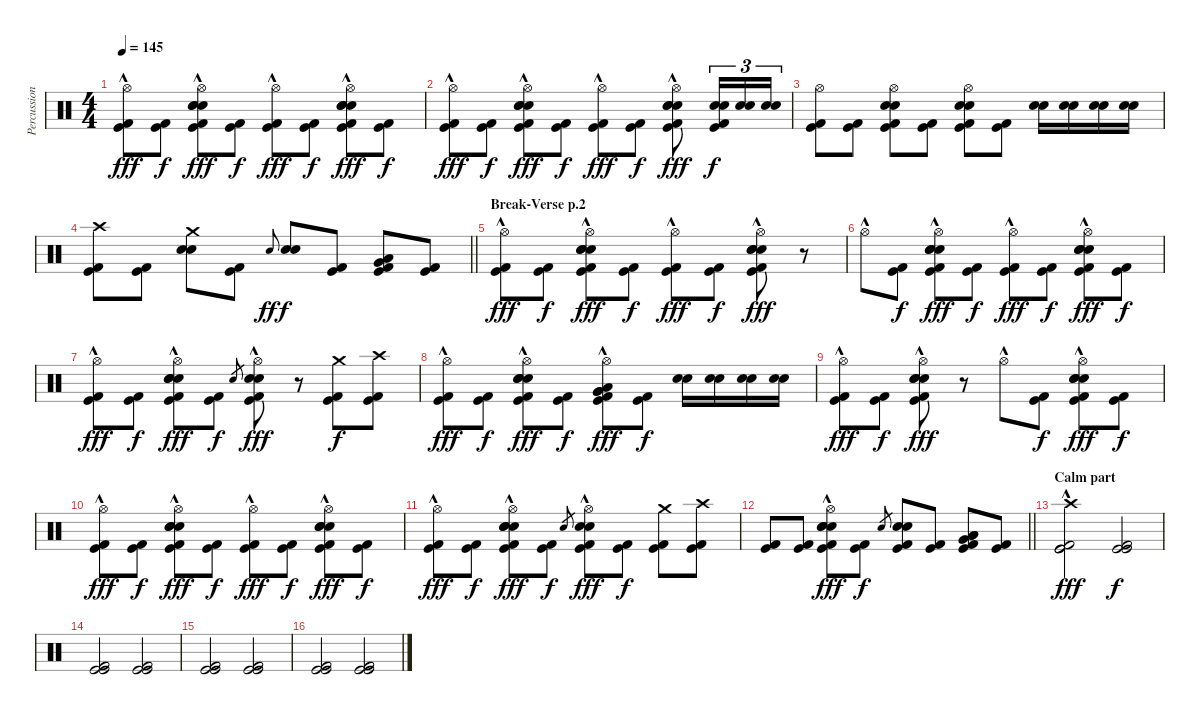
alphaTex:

\track ("Percussion" "Percussion") {instrument percussion}
\staff {score}
\articulation defaults
\ts (4 4)
\tempo 145
\clef neutral
\ks c
("Hi-Hat (open)"{hac} "Kick (hit)" "Kick (hit) 2").8{dy fff} ("Kick (hit)" "Kick (hit) 2").8{dy f} ("Hi-Hat (open)"{hac} "Electric Snare (hit)" "Snare (hit) 2" "Electric Snare (hit)" "Kick (hit)" "Kick (hit) 2").8{dy fff} ("Kick (hit)" "Kick (hit) 2").8{dy f} ("Hi-Hat (open)"{hac} "Kick (hit)" "Kick (hit) 2").8{dy fff} ("Kick (hit)" "Kick (hit) 2").8{dy f} ("Hi-Hat (open)"{hac} "Electric Snare (hit)" "Electric Snare (hit)" "Snare (hit) 2" "Kick (hit)" "Kick (hit) 2").8{dy fff} ("Kick (hit)" "Kick (hit) 2").8{dy f} |
("Hi-Hat (open)"{hac} "Kick (hit)" "Kick (hit) 2").8{dy fff} ("Kick (hit)" "Kick (hit) 2").8{dy f} ("Hi-Hat (open)"{hac} "Electric Snare (hit)" "Snare (hit) 2" "Electric Snare (hit)" "Kick (hit)" "Kick (hit) 2").8{dy fff} ("Kick (hit)" "Kick (hit) 2").8{dy f} ("Hi-Hat (open)"{hac} "Kick (hit)" "Kick (hit) 2").8{dy fff} ("Kick (hit)" "Kick (hit) 2").8{dy f} ("Hi-Hat (open)"{hac} "Electric Snare (hit)" "Electric Snare (hit)" "Snare (hit) 2" "Kick (hit)" "Kick (hit) 2").8{dy fff} ("Electric Snare (hit)" "Snare (hit) 2" "Kick (hit)" "Kick (hit) 2").16{tu (3 2) dy f} ("Electric Snare (hit)" "Snare (hit) 2").16{tu (3 2)} ("Electric Snare (hit)" "Snare (hit) 2").16{tu (3 2)} |
("Hi-Hat (open)" "Kick (hit) 2" "Kick (hit)").8 ("Kick (hit)" "Kick (hit) 2").8 ("Hi-Hat (open)" "Electric Snare (hit)" "Snare (hit) 2" "Kick (hit)" "Kick (hit) 2").8 ("Kick (hit)" "Kick (hit) 2").8 ("Hi-Hat (open)" "Electric Snare (hit)" "Snare (hit) 2" "Kick (hit)" "Kick (hit) 2").8 ("Kick (hit)" "Kick (hit) 2").8 ("Electric Snare (hit)" "Snare (hit) 2").16 ("Electric Snare (hit)" "Snare (hit) 2").16 ("Electric Snare (hit)" "Snare (hit) 2").16 ("Electric Snare (hit)" "Snare (hit) 2").16 |
\barLineRight lightlight
("Crash high (hit)" "Kick (hit)" "Kick (hit) 2").8 ("Kick (hit)" "Kick (hit) 2").8 ("Crash medium (hit)" "Electric Snare (hit)" "Snare (hit) 2").8 ("Kick (hit)" "Kick (hit) 2").8 "Electric Snare (hit)".8{gr onbeat dy ff} ("Electric Snare (hit)" "Snare (hit) 2").8{dy f} ("Kick (hit)" "Kick (hit) 2").8 ("Low Tom (hit)" "Very Low Tom (hit)" "Kick (hit)" "Kick (hit) 2").8 ("Kick (hit)" "Kick (hit) 2").8 |
\section ("" "Break-Verse p.2")
("Hi-Hat (open)"{hac} "Kick (hit)" "Kick (hit) 2").8{dy fff} ("Kick (hit)" "Kick (hit) 2").8{dy f} ("Hi-Hat (open)"{hac} "Electric Snare (hit)" "Snare (hit) 2" "Electric Snare (hit)" "Kick (hit)" "Kick (hit) 2").8{dy fff} ("Kick (hit)" "Kick (hit) 2").8{dy f} ("Hi-Hat (open)"{hac} "Kick (hit)" "Kick (hit) 2").8{dy fff} ("Kick (hit)" "Kick (hit) 2").8{dy f} ("Hi-Hat (open)"{hac} "Electric Snare (hit)" "Electric Snare (hit)" "Snare (hit) 2" "Kick (hit)" "Kick (hit) 2").8{dy fff} r.8 |
"Hi-Hat (open)"{hac}.8 ("Kick (hit)" "Kick (hit) 2").8{dy f} ("Hi-Hat (open)"{hac} "Electric Snare (hit)" "Snare (hit) 2" "Electric Snare (hit)" "Kick (hit)" "Kick (hit) 2").8{dy fff} ("Kick (hit)" "Kick (hit) 2").8{dy f} ("Hi-Hat (open)"{hac} "Kick (hit)" "Kick (hit) 2").8{dy fff} ("Kick (hit)" "Kick (hit) 2").8{dy f} ("Hi-Hat (open)"{hac} "Electric Snare (hit)" "Electric Snare (hit)" "Snare (hit) 2" "Kick (hit)" "Kick (hit) 2").8{dy fff} ("Kick (hit)" "Kick (hit) 2").8{dy f} |
("Hi-Hat (open)"{hac} "Kick (hit)" "Kick (hit) 2").8{dy fff} ("Kick (hit)" "Kick (hit) 2").8{dy f} ("Hi-Hat (open)"{hac} "Electric Snare (hit)" "Snare (hit) 2" "Electric Snare (hit)" "Kick (hit)" "Kick (hit) 2").8{dy fff} ("Kick (hit)" "Kick (hit) 2").8{dy f} "Electric Snare (hit)".8{gr} ("Hi-Hat (open)"{hac} "Electric Snare (hit)" "Snare (hit) 2" "Kick (hit)" "Kick (hit) 2").8{dy fff} r.8 ("Crash medium (hit)" "Kick (hit)" "Kick (hit) 2").8{dy f} ("Crash high (hit)" "Kick (hit)" "Kick (hit) 2").8 |
("Hi-Hat (open)"{hac} "Kick (hit)" "Kick (hit) 2").8{dy fff} ("Kick (hit)" "Kick (hit) 2").8{dy f} ("Hi-Hat (open)"{hac} "Electric Snare (hit)" "Snare (hit) 2" "Electric Snare (hit)" "Kick (hit)" "Kick (hit) 2").8{dy fff} ("Kick (hit)" "Kick (hit) 2").8{dy f} ("Hi-Hat (open)"{hac} "Very Low Tom (hit)" "Low Tom (hit)" "Very Low Tom (hit)" "Kick (hit)" "Kick (hit) 2").8{dy fff} ("Kick (hit)" "Kick (hit) 2").8{dy f} ("Electric Snare (hit)" "Snare (hit) 2").16 ("Electric Snare (hit)" "Snare (hit) 2").16 ("Electric Snare (hit)" "Snare (hit) 2").16 ("Electric Snare (hit)" "Snare (hit) 2").16 |
("Hi-Hat (open)"{hac} "Kick (hit)" "Kick (hit) 2").8{dy fff} ("Kick (hit)" "Kick (hit) 2").8{dy f} ("Hi-Hat (open)"{hac} "Electric Snare (hit)" "Snare (hit) 2" "Electric Snare (hit)" "Kick (hit)" "Kick (hit) 2").8{dy fff} r.8 "Hi-Hat (open)"{hac}.8 ("Kick (hit)" "Kick (hit) 2").8{dy f} ("Hi-Hat (open)"{hac} "Electric Snare (hit)" "Electric Snare (hit)" "Snare (hit) 2" "Kick (hit)" "Kick (hit) 2").8{dy fff} ("Kick (hit)" "Kick (hit) 2").8{dy f} |
("Hi-Hat (open)"{hac} "Kick (hit)" "Kick (hit) 2").8{dy fff} ("Kick (hit)" "Kick (hit) 2").8{dy f} ("Hi-Hat (open)"{hac} "Electric Snare (hit)" "Snare (hit) 2" "Electric Snare (hit)" "Kick (hit)" "Kick (hit) 2").8{dy fff} ("Kick (hit)" "Kick (hit) 2").8{dy f} ("Hi-Hat (open)"{hac} "Kick (hit)" "Kick (hit) 2").8{dy fff} ("Kick (hit)" "Kick (hit) 2").8{dy f} ("Hi-Hat (open)"{hac} "Electric Snare (hit)" "Electric Snare (hit)" "Snare (hit) 2" "Kick (hit)" "Kick (hit) 2").8{dy fff} ("Kick (hit)" "Kick (hit) 2").8{dy f} |
("Hi-Hat (open)"{hac} "Kick (hit)" "Kick (hit) 2").8{dy fff} ("Kick (hit)" "Kick (hit) 2").8{dy f} ("Hi-Hat (open)"{hac} "Electric Snare (hit)" "Snare (hit) 2" "Electric Snare (hit)" "Kick (hit)" "Kick (hit) 2").8{dy fff} ("Kick (hit)" "Kick (hit) 2").8{dy f} "Electric Snare (hit)".8{gr} ("Hi-Hat (open)"{hac} "Electric Snare (hit)" "Snare (hit) 2" "Kick (hit)" "Kick (hit) 2").8{dy fff} ("Kick (hit)" "Kick (hit) 2").8{dy f} ("Crash medium (hit)" "Kick (hit)" "Kick (hit) 2").8 ("Crash high (hit)" "Kick (hit)" "Kick (hit) 2").8 |
\barLineRight lightlight
("Kick (hit)" "Kick (hit) 2").8 ("Kick (hit)" "Kick (hit) 2").8 ("Hi-Hat (open)"{hac} "Electric Snare (hit)" "Snare (hit) 2" "Electric Snare (hit)" "Kick (hit)" "Kick (hit) 2").8{dy fff} ("Kick (hit)" "Kick (hit) 2").8{dy f} "Electric Snare (hit)".8{gr} ("Electric Snare (hit)" "Snare (hit) 2" "Kick (hit)" "Kick (hit) 2").8 ("Kick (hit)" "Kick (hit) 2").8 ("Very Low Tom (hit)" "Low Tom (hit)" "Low Floor Tom (hit)" "Kick (hit)" "Kick (hit) 2").8 ("Kick (hit)" "Kick (hit) 2").8 |
\section ("" "Calm part")
("Crash high (hit)"{hac} "Kick (hit)" "Kick (hit)"{hac} "Kick (hit) 2"{hac}).2{dy fff volume 16} ("Kick (hit)" "Kick (hit)" "Kick (hit) 2").2{dy f} |
("Kick (hit)" "Kick (hit)" "Kick (hit) 2").2 ("Kick (hit)" "Kick (hit)" "Kick (hit) 2").2 |
("Kick (hit)" "Kick (hit)" "Kick (hit) 2").2 ("Kick (hit)" "Kick (hit)" "Kick (hit) 2").2 |
("Kick (hit)" "Kick (hit)" "Kick (hit) 2").2 ("Kick (hit)" "Kick (hit)" "Kick (hit) 2").2
